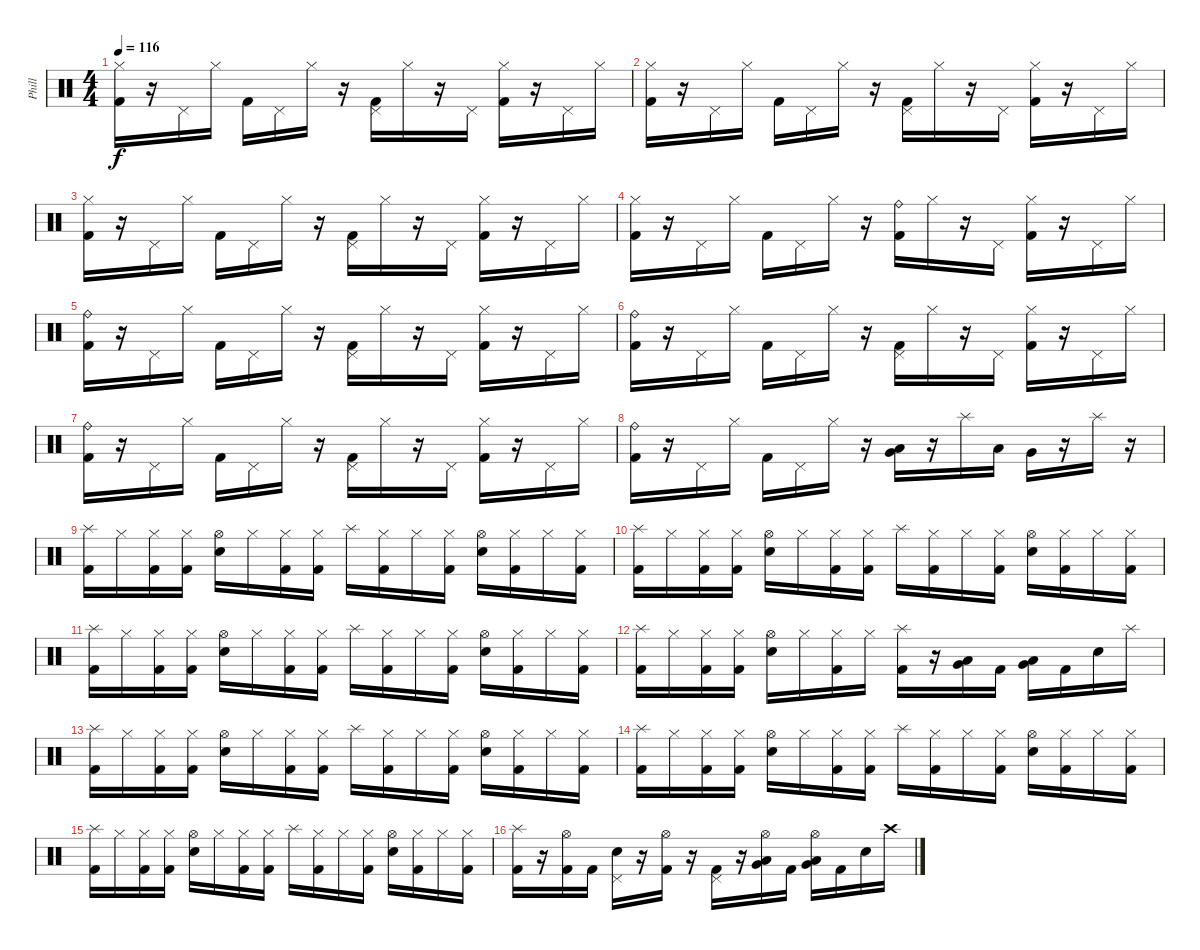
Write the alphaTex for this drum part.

\track ("Phill" "Phill") {instrument percussion}
\staff {score}
\articulation defaults
\ts (4 4)
\tempo 116
\clef neutral
\ks c
("Hi-Hat (closed)" "Kick (hit) 2").16{dy f} r.16 "Pedal Hi-Hat (hit)".16 "Hi-Hat (closed)".16 "Kick (hit) 2".16 "Pedal Hi-Hat (hit)".16 "Hi-Hat (closed)".16 r.16 ("Pedal Hi-Hat (hit)" "Kick (hit) 2").16 "Hi-Hat (closed)".16 r.16 "Pedal Hi-Hat (hit)".16 ("Hi-Hat (closed)" "Kick (hit) 2").16 r.16 "Pedal Hi-Hat (hit)".16 "Hi-Hat (closed)".16 |
("Hi-Hat (closed)" "Kick (hit) 2").16 r.16 "Pedal Hi-Hat (hit)".16 "Hi-Hat (closed)".16 "Kick (hit) 2".16 "Pedal Hi-Hat (hit)".16 "Hi-Hat (closed)".16 r.16 ("Pedal Hi-Hat (hit)" "Kick (hit) 2").16 "Hi-Hat (closed)".16 r.16 "Pedal Hi-Hat (hit)".16 ("Hi-Hat (closed)" "Kick (hit) 2").16 r.16 "Pedal Hi-Hat (hit)".16 "Hi-Hat (closed)".16 |
("Hi-Hat (closed)" "Kick (hit) 2").16 r.16 "Pedal Hi-Hat (hit)".16 "Hi-Hat (closed)".16 "Kick (hit) 2".16 "Pedal Hi-Hat (hit)".16 "Hi-Hat (closed)".16 r.16 ("Pedal Hi-Hat (hit)" "Kick (hit) 2").16 "Hi-Hat (closed)".16 r.16 "Pedal Hi-Hat (hit)".16 ("Hi-Hat (closed)" "Kick (hit) 2").16 r.16 "Pedal Hi-Hat (hit)".16 "Hi-Hat (closed)".16 |
("Hi-Hat (closed)" "Kick (hit) 2").16 r.16 "Pedal Hi-Hat (hit)".16 "Hi-Hat (closed)".16 "Kick (hit) 2".16 "Pedal Hi-Hat (hit)".16 "Hi-Hat (closed)".16 r.16 ("Ride (bell)" "Kick (hit) 2").16 "Hi-Hat (closed)".16 r.16 "Pedal Hi-Hat (hit)".16 ("Hi-Hat (closed)" "Kick (hit) 2").16 r.16 "Pedal Hi-Hat (hit)".16 "Hi-Hat (closed)".16 |
("Ride (bell)" "Kick (hit) 2").16 r.16 "Pedal Hi-Hat (hit)".16 "Hi-Hat (closed)".16 "Kick (hit) 2".16 "Pedal Hi-Hat (hit)".16 "Hi-Hat (closed)".16 r.16 ("Pedal Hi-Hat (hit)" "Kick (hit) 2").16 "Hi-Hat (closed)".16 r.16 "Pedal Hi-Hat (hit)".16 ("Hi-Hat (closed)" "Kick (hit) 2").16 r.16 "Pedal Hi-Hat (hit)".16 "Hi-Hat (closed)".16 |
("Ride (bell)" "Kick (hit) 2").16 r.16 "Pedal Hi-Hat (hit)".16 "Hi-Hat (closed)".16 "Kick (hit) 2".16 "Pedal Hi-Hat (hit)".16 "Hi-Hat (closed)".16 r.16 ("Pedal Hi-Hat (hit)" "Kick (hit) 2").16 "Hi-Hat (closed)".16 r.16 "Pedal Hi-Hat (hit)".16 ("Hi-Hat (closed)" "Kick (hit) 2").16 r.16 "Pedal Hi-Hat (hit)".16 "Hi-Hat (closed)".16 |
("Ride (bell)" "Kick (hit) 2").16 r.16 "Pedal Hi-Hat (hit)".16 "Hi-Hat (closed)".16 "Kick (hit) 2".16 "Pedal Hi-Hat (hit)".16 "Hi-Hat (closed)".16 r.16 ("Pedal Hi-Hat (hit)" "Kick (hit) 2").16 "Hi-Hat (closed)".16 r.16 "Pedal Hi-Hat (hit)".16 ("Hi-Hat (closed)" "Kick (hit) 2").16 r.16 "Pedal Hi-Hat (hit)".16 "Hi-Hat (closed)".16 |
("Ride (bell)" "Kick (hit) 2").16 r.16 "Pedal Hi-Hat (hit)".16 "Hi-Hat (closed)".16 "Kick (hit) 2".16 "Pedal Hi-Hat (hit)".16 "Hi-Hat (closed)".16 r.16 ("Low Tom (hit)" "Very Low Tom (hit)").16 r.16 "Splash (hit)".16 "Low Tom (hit)".16 "Very Low Tom (hit)".16 r.16 "Splash (hit)".16 r.16 |
("Splash (hit)" "Kick (hit) 2").16 "Hi-Hat (closed)".16 ("Hi-Hat (closed)" "Kick (hit) 2").16 ("Hi-Hat (closed)" "Kick (hit) 2").16 ("Hi-Hat (open)" "Electric Snare (hit)").16 "Hi-Hat (closed)".16 ("Hi-Hat (closed)" "Kick (hit) 2").16 ("Hi-Hat (closed)" "Kick (hit) 2").16 "Splash (hit)".16 ("Hi-Hat (closed)" "Kick (hit) 2").16 "Hi-Hat (closed)".16 ("Hi-Hat (closed)" "Kick (hit) 2").16 ("Hi-Hat (open)" "Electric Snare (hit)").16 ("Hi-Hat (closed)" "Kick (hit) 2").16 "Hi-Hat (closed)".16 ("Hi-Hat (closed)" "Kick (hit) 2").16 |
("Splash (hit)" "Kick (hit) 2").16 "Hi-Hat (closed)".16 ("Hi-Hat (closed)" "Kick (hit) 2").16 ("Hi-Hat (closed)" "Kick (hit) 2").16 ("Hi-Hat (open)" "Electric Snare (hit)").16 "Hi-Hat (closed)".16 ("Hi-Hat (closed)" "Kick (hit) 2").16 ("Hi-Hat (closed)" "Kick (hit) 2").16 "Splash (hit)".16 ("Hi-Hat (closed)" "Kick (hit) 2").16 "Hi-Hat (closed)".16 ("Hi-Hat (closed)" "Kick (hit) 2").16 ("Hi-Hat (open)" "Electric Snare (hit)").16 ("Hi-Hat (closed)" "Kick (hit) 2").16 "Hi-Hat (closed)".16 ("Hi-Hat (closed)" "Kick (hit) 2").16 |
("Splash (hit)" "Kick (hit) 2").16 "Hi-Hat (closed)".16 ("Hi-Hat (closed)" "Kick (hit) 2").16 ("Hi-Hat (closed)" "Kick (hit) 2").16 ("Hi-Hat (open)" "Electric Snare (hit)").16 "Hi-Hat (closed)".16 ("Hi-Hat (closed)" "Kick (hit) 2").16 ("Hi-Hat (closed)" "Kick (hit) 2").16 "Splash (hit)".16 ("Hi-Hat (closed)" "Kick (hit) 2").16 "Hi-Hat (closed)".16 ("Hi-Hat (closed)" "Kick (hit) 2").16 ("Hi-Hat (open)" "Electric Snare (hit)").16 ("Hi-Hat (closed)" "Kick (hit) 2").16 "Hi-Hat (closed)".16 ("Hi-Hat (closed)" "Kick (hit) 2").16 |
("Splash (hit)" "Kick (hit) 2").16 "Hi-Hat (closed)".16 ("Hi-Hat (closed)" "Kick (hit) 2").16 ("Hi-Hat (closed)" "Kick (hit) 2").16 ("Hi-Hat (open)" "Electric Snare (hit)").16 "Hi-Hat (closed)".16 ("Hi-Hat (closed)" "Kick (hit) 2").16 "Hi-Hat (closed)".16 ("Splash (hit)" "Kick (hit) 2").16 r.16 ("Very Low Tom (hit)" "Low Tom (hit)").16 "Kick (hit) 2".16 ("Very Low Tom (hit)" "Low Tom (hit)").16 "Kick (hit) 2".16 "Electric Snare (hit)".16 "Splash (hit)".16 |
("Splash (hit)" "Kick (hit) 2").16 "Hi-Hat (closed)".16 ("Hi-Hat (closed)" "Kick (hit) 2").16 ("Hi-Hat (closed)" "Kick (hit) 2").16 ("Hi-Hat (open)" "Electric Snare (hit)").16 "Hi-Hat (closed)".16 ("Hi-Hat (closed)" "Kick (hit) 2").16 ("Hi-Hat (closed)" "Kick (hit) 2").16 "Splash (hit)".16 ("Hi-Hat (closed)" "Kick (hit) 2").16 "Hi-Hat (closed)".16 ("Hi-Hat (closed)" "Kick (hit) 2").16 ("Hi-Hat (open)" "Electric Snare (hit)").16 ("Hi-Hat (closed)" "Kick (hit) 2").16 "Hi-Hat (closed)".16 ("Hi-Hat (closed)" "Kick (hit) 2").16 |
("Splash (hit)" "Kick (hit) 2").16 "Hi-Hat (closed)".16 ("Hi-Hat (closed)" "Kick (hit) 2").16 ("Hi-Hat (closed)" "Kick (hit) 2").16 ("Hi-Hat (open)" "Electric Snare (hit)").16 "Hi-Hat (closed)".16 ("Hi-Hat (closed)" "Kick (hit) 2").16 ("Hi-Hat (closed)" "Kick (hit) 2").16 "Splash (hit)".16 ("Hi-Hat (closed)" "Kick (hit) 2").16 "Hi-Hat (closed)".16 ("Hi-Hat (closed)" "Kick (hit) 2").16 ("Hi-Hat (open)" "Electric Snare (hit)").16 ("Hi-Hat (closed)" "Kick (hit) 2").16 "Hi-Hat (closed)".16 ("Hi-Hat (closed)" "Kick (hit) 2").16 |
("Splash (hit)" "Kick (hit) 2").16 "Hi-Hat (closed)".16 ("Hi-Hat (closed)" "Kick (hit) 2").16 ("Hi-Hat (closed)" "Kick (hit) 2").16 ("Hi-Hat (open)" "Electric Snare (hit)").16 "Hi-Hat (closed)".16 ("Hi-Hat (closed)" "Kick (hit) 2").16 ("Hi-Hat (closed)" "Kick (hit) 2").16 "Splash (hit)".16 ("Hi-Hat (closed)" "Kick (hit) 2").16 "Hi-Hat (closed)".16 ("Hi-Hat (closed)" "Kick (hit) 2").16 ("Hi-Hat (open)" "Electric Snare (hit)").16 ("Hi-Hat (closed)" "Kick (hit) 2").16 "Hi-Hat (closed)".16 ("Hi-Hat (closed)" "Kick (hit) 2").16 |
("Splash (hit)" "Kick (hit) 2").16 r.16 ("Hi-Hat (open)" "Kick (hit) 2").16 "Kick (hit) 2".16 ("Pedal Hi-Hat (hit)" "Electric Snare (hit)").16 r.16 ("Hi-Hat (open)" "Kick (hit) 2").16 r.16 ("Pedal Hi-Hat (hit)" "Kick (hit) 2").16 r.16 ("Hi-Hat (open)" "Very Low Tom (hit)" "Low Tom (hit)").16 "Kick (hit) 2".16 ("Hi-Hat (open)" "Very Low Tom (hit)" "Low Tom (hit)").16 "Kick (hit) 2".16 "Electric Snare (hit)".16 "Crash high (hit)".16
